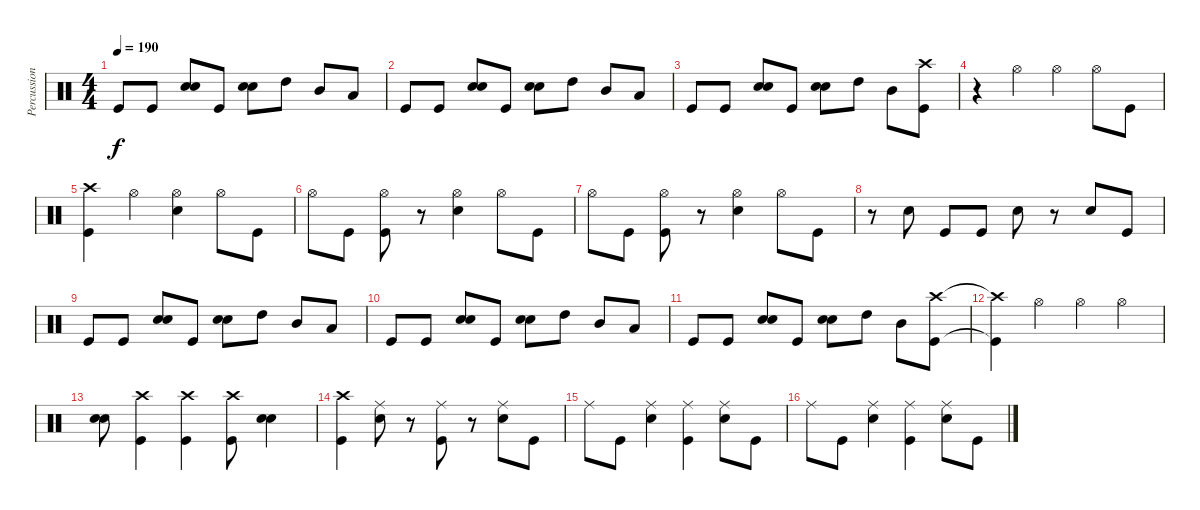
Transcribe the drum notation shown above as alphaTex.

\track ("Percussion" "Percussion") {mute instrument percussion}
\staff {score}
\articulation defaults
\ts (4 4)
\tempo 190
\clef neutral
\ks c "Kick (hit)".8{dy f} "Kick (hit)".8
("Snare (hit) 2" "Snare (hit) 2").8 "Kick (hit)".8 ("Snare (hit) 2" "Snare (hit) 2").8 "High Tom (hit)".8 "Mid Tom (hit)".8 "Low Tom (hit)".8 |
"Kick (hit)".8 "Kick (hit)".8 ("Snare (hit) 2" "Snare (hit) 2").8 "Kick (hit)".8 ("Snare (hit) 2" "Snare (hit) 2").8 "High Tom (hit)".8 "Mid Tom (hit)".8 "Low Tom (hit)".8 |
"Kick (hit)".8 "Kick (hit)".8 ("Snare (hit) 2" "Snare (hit) 2").8 "Kick (hit)".8 ("Snare (hit) 2" "Snare (hit) 2").8 "High Tom (hit)".8 "Mid Tom (hit)".8 ("Crash high (hit)" "Kick (hit)").8 |
r.4 "Hi-Hat (open)".4 "Hi-Hat (open)".4 "Hi-Hat (open)".8 "Kick (hit)".8 |
("Crash high (hit)" "Kick (hit)").4 "Hi-Hat (open)".4 ("Hi-Hat (open)" "Snare (hit) 2").4 "Hi-Hat (open)".8 "Kick (hit)".8 |
"Hi-Hat (open)".8 "Kick (hit)".8 ("Hi-Hat (open)" "Kick (hit)").8 r.8 ("Hi-Hat (open)" "Snare (hit) 2").4 "Hi-Hat (open)".8 "Kick (hit)".8 |
"Hi-Hat (open)".8 "Kick (hit)".8 ("Hi-Hat (open)" "Kick (hit)").8 r.8 ("Hi-Hat (open)" "Snare (hit) 2").4 "Hi-Hat (open)".8 "Kick (hit)".8 |
r.8 "Snare (hit) 2".8 "Kick (hit)".8 "Kick (hit)".8 "Snare (hit) 2".8 r.8 "Snare (hit) 2".8 "Kick (hit)".8 |
"Kick (hit)".8 "Kick (hit)".8 ("Snare (hit) 2" "Snare (hit) 2").8 "Kick (hit)".8 ("Snare (hit) 2" "Snare (hit) 2").8 "High Tom (hit)".8 "Mid Tom (hit)".8 "Low Tom (hit)".8 |
"Kick (hit)".8 "Kick (hit)".8 ("Snare (hit) 2" "Snare (hit) 2").8 "Kick (hit)".8 ("Snare (hit) 2" "Snare (hit) 2").8 "High Tom (hit)".8 "Mid Tom (hit)".8 "Low Tom (hit)".8 |
"Kick (hit)".8 "Kick (hit)".8 ("Snare (hit) 2" "Snare (hit) 2").8 "Kick (hit)".8 ("Snare (hit) 2" "Snare (hit) 2").8 "High Tom (hit)".8 "Mid Tom (hit)".8 ("Crash high (hit)" "Kick (hit)").8 |
("Crash high (hit)"{t} "Kick (hit)"{t}).4 "Hi-Hat (open)".4 "Hi-Hat (open)".4 "Hi-Hat (open)".4 |
("Snare (hit) 2" "Snare (hit) 2").8 ("Crash high (hit)" "Kick (hit)").4 ("Crash high (hit)" "Kick (hit)").4 ("Crash high (hit)" "Kick (hit)").8 ("Snare (hit) 2" "Snare (hit) 2").4 |
("Crash high (hit)" "Kick (hit)").4 ("Ride (middle)" "Snare (hit) 2").8 r.8 ("Ride (middle)" "Kick (hit)").8 r.8 ("Ride (middle)" "Snare (hit) 2").8 "Kick (hit)".8 |
"Ride (middle)".8 "Kick (hit)".8 ("Ride (middle)" "Snare (hit) 2").4 ("Ride (middle)" "Kick (hit)").4 ("Ride (middle)" "Snare (hit) 2").8 "Kick (hit)".8 |
"Ride (middle)".8 "Kick (hit)".8 ("Ride (middle)" "Snare (hit) 2").4 ("Ride (middle)" "Kick (hit)").4 ("Ride (middle)" "Snare (hit) 2").8 "Kick (hit)".8
